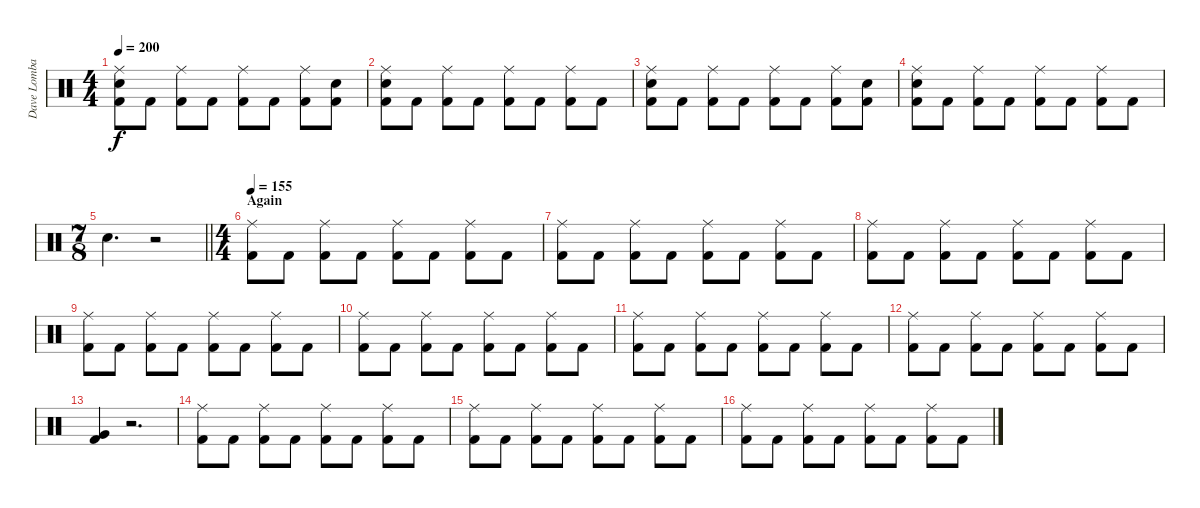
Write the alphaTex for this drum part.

\track ("Dave Lombardo (Drums)" "Dave Lomba") {instrument percussion}
\staff {score}
\articulation defaults
\ts (4 4)
\tempo 200
\clef neutral
\ks c
("Ride (middle)" "Snare (hit) 2" "Kick (hit) 2").8{dy f} "Kick (hit) 2".8 ("Ride (middle)" "Kick (hit) 2").8 "Kick (hit) 2".8 ("Ride (middle)" "Kick (hit) 2").8 "Kick (hit) 2".8 ("Ride (middle)" "Kick (hit) 2").8 ("Snare (hit) 2" "Kick (hit) 2").8 |
("Ride (middle)" "Snare (hit) 2" "Kick (hit) 2").8 "Kick (hit) 2".8 ("Ride (middle)" "Kick (hit) 2").8 "Kick (hit) 2".8 ("Ride (middle)" "Kick (hit) 2").8 "Kick (hit) 2".8 ("Ride (middle)" "Kick (hit) 2").8 "Kick (hit) 2".8 |
("Ride (middle)" "Snare (hit) 2" "Kick (hit) 2").8 "Kick (hit) 2".8 ("Ride (middle)" "Kick (hit) 2").8 "Kick (hit) 2".8 ("Ride (middle)" "Kick (hit) 2").8 "Kick (hit) 2".8 ("Ride (middle)" "Kick (hit) 2").8 ("Snare (hit) 2" "Kick (hit) 2").8 |
("Ride (middle)" "Snare (hit) 2" "Kick (hit) 2").8 "Kick (hit) 2".8 ("Ride (middle)" "Kick (hit) 2").8 "Kick (hit) 2".8 ("Ride (middle)" "Kick (hit) 2").8 "Kick (hit) 2".8 ("Ride (middle)" "Kick (hit) 2").8 "Kick (hit) 2".8 |
\ts (7 8)
\barLineRight lightlight "Snare (hit) 2".4{d}
r.2 |
\ts (4 4)
\section ("" "Again")
\tempo 155
("Ride (middle)" "Kick (hit) 2").8 "Kick (hit) 2".8 ("Ride (middle)" "Kick (hit) 2").8 "Kick (hit) 2".8 ("Ride (middle)" "Kick (hit) 2").8 "Kick (hit) 2".8 ("Ride (middle)" "Kick (hit) 2").8 "Kick (hit) 2".8 |
("Ride (middle)" "Kick (hit) 2").8 "Kick (hit) 2".8 ("Ride (middle)" "Kick (hit) 2").8 "Kick (hit) 2".8 ("Ride (middle)" "Kick (hit) 2").8 "Kick (hit) 2".8 ("Ride (middle)" "Kick (hit) 2").8 "Kick (hit) 2".8 |
("Ride (middle)" "Kick (hit) 2").8 "Kick (hit) 2".8 ("Ride (middle)" "Kick (hit) 2").8 "Kick (hit) 2".8 ("Ride (middle)" "Kick (hit) 2").8 "Kick (hit) 2".8 ("Ride (middle)" "Kick (hit) 2").8 "Kick (hit) 2".8 |
("Ride (middle)" "Kick (hit) 2").8 "Kick (hit) 2".8 ("Ride (middle)" "Kick (hit) 2").8 "Kick (hit) 2".8 ("Ride (middle)" "Kick (hit) 2").8 "Kick (hit) 2".8 ("Ride (middle)" "Kick (hit) 2").8 "Kick (hit) 2".8 |
("Ride (middle)" "Kick (hit) 2").8 "Kick (hit) 2".8 ("Ride (middle)" "Kick (hit) 2").8 "Kick (hit) 2".8 ("Ride (middle)" "Kick (hit) 2").8 "Kick (hit) 2".8 ("Ride (middle)" "Kick (hit) 2").8 "Kick (hit) 2".8 |
("Ride (middle)" "Kick (hit) 2").8 "Kick (hit) 2".8 ("Ride (middle)" "Kick (hit) 2").8 "Kick (hit) 2".8 ("Ride (middle)" "Kick (hit) 2").8 "Kick (hit) 2".8 ("Ride (middle)" "Kick (hit) 2").8 "Kick (hit) 2".8 |
("Ride (middle)" "Kick (hit) 2").8 "Kick (hit) 2".8 ("Ride (middle)" "Kick (hit) 2").8 "Kick (hit) 2".8 ("Ride (middle)" "Kick (hit) 2").8 "Kick (hit) 2".8 ("Ride (middle)" "Kick (hit) 2").8 "Kick (hit) 2".8 |
("Very Low Tom (hit)" "Kick (hit) 2").4 r.2{d} |
("Ride (middle)" "Kick (hit) 2").8 "Kick (hit) 2".8 ("Ride (middle)" "Kick (hit) 2").8 "Kick (hit) 2".8 ("Ride (middle)" "Kick (hit) 2").8 "Kick (hit) 2".8 ("Ride (middle)" "Kick (hit) 2").8 "Kick (hit) 2".8 |
("Ride (middle)" "Kick (hit) 2").8 "Kick (hit) 2".8 ("Ride (middle)" "Kick (hit) 2").8 "Kick (hit) 2".8 ("Ride (middle)" "Kick (hit) 2").8 "Kick (hit) 2".8 ("Ride (middle)" "Kick (hit) 2").8 "Kick (hit) 2".8 |
("Ride (middle)" "Kick (hit) 2").8 "Kick (hit) 2".8 ("Ride (middle)" "Kick (hit) 2").8 "Kick (hit) 2".8 ("Ride (middle)" "Kick (hit) 2").8 "Kick (hit) 2".8 ("Ride (middle)" "Kick (hit) 2").8 "Kick (hit) 2".8
